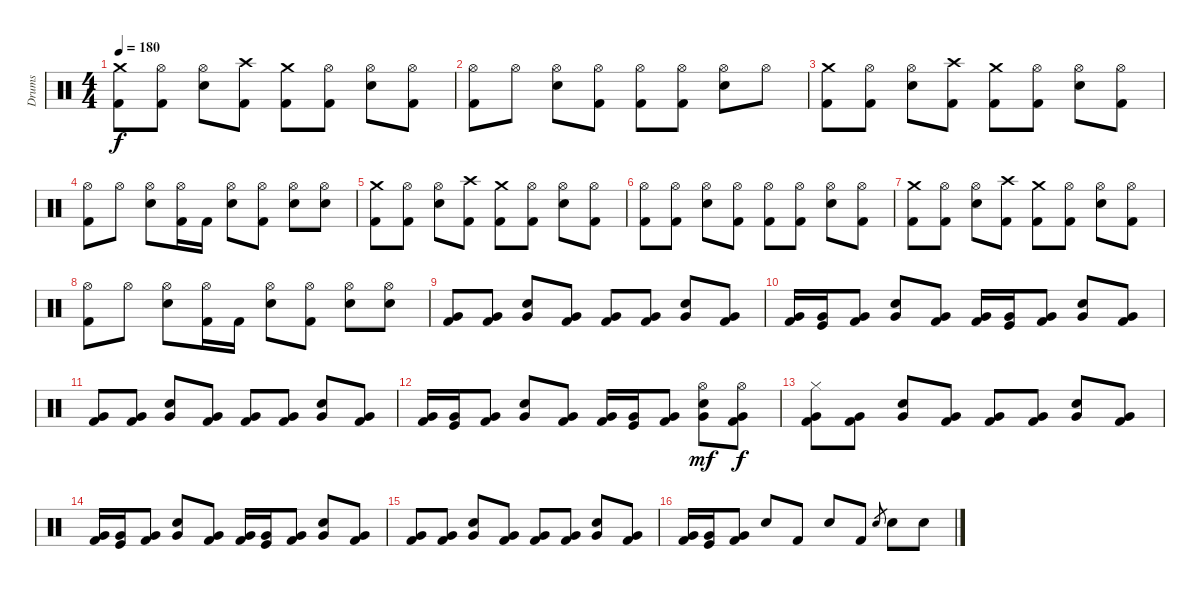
\track ("Drums" "Drums") {instrument percussion}
\staff {score}
\articulation defaults
\ts (4 4)
\tempo 180
\clef neutral
\ks c
("Crash medium (hit)" "Kick (hit) 2").8{dy f} ("Hi-Hat (open)" "Kick (hit) 2").8 ("Hi-Hat (open)" "Electric Snare (hit)").8 ("Crash high (hit)" "Kick (hit) 2").8 ("Crash medium (hit)" "Kick (hit) 2").8 ("Hi-Hat (open)" "Kick (hit) 2").8 ("Hi-Hat (open)" "Electric Snare (hit)").8 ("Hi-Hat (open)" "Kick (hit) 2").8 |
("Hi-Hat (open)" "Kick (hit) 2").8 "Hi-Hat (open)".8 ("Hi-Hat (open)" "Electric Snare (hit)").8 ("Hi-Hat (open)" "Kick (hit) 2").8 ("Hi-Hat (open)" "Kick (hit) 2").8 ("Hi-Hat (open)" "Kick (hit) 2").8 ("Hi-Hat (open)" "Electric Snare (hit)").8 "Hi-Hat (open)".8 |
("Crash medium (hit)" "Kick (hit) 2").8 ("Hi-Hat (open)" "Kick (hit) 2").8 ("Hi-Hat (open)" "Electric Snare (hit)").8 ("Crash high (hit)" "Kick (hit) 2").8 ("Crash medium (hit)" "Kick (hit) 2").8 ("Hi-Hat (open)" "Kick (hit) 2").8 ("Hi-Hat (open)" "Electric Snare (hit)").8 ("Hi-Hat (open)" "Kick (hit) 2").8 |
("Hi-Hat (open)" "Kick (hit) 2").8 "Hi-Hat (open)".8 ("Hi-Hat (open)" "Electric Snare (hit)").8 ("Hi-Hat (open)" "Kick (hit) 2").16 "Kick (hit) 2".16 ("Hi-Hat (open)" "Electric Snare (hit)").8 ("Hi-Hat (open)" "Kick (hit) 2").8 ("Hi-Hat (open)" "Electric Snare (hit)").8 ("Hi-Hat (open)" "Electric Snare (hit)").8 |
("Crash medium (hit)" "Kick (hit) 2").8 ("Hi-Hat (open)" "Kick (hit) 2").8 ("Hi-Hat (open)" "Electric Snare (hit)").8 ("Crash high (hit)" "Kick (hit) 2").8 ("Crash medium (hit)" "Kick (hit) 2").8 ("Hi-Hat (open)" "Kick (hit) 2").8 ("Hi-Hat (open)" "Electric Snare (hit)").8 ("Hi-Hat (open)" "Kick (hit) 2").8 |
("Hi-Hat (open)" "Kick (hit) 2").8 ("Hi-Hat (open)" "Kick (hit) 2").8 ("Hi-Hat (open)" "Electric Snare (hit)").8 ("Hi-Hat (open)" "Kick (hit) 2").8 ("Hi-Hat (open)" "Kick (hit) 2").8 ("Hi-Hat (open)" "Kick (hit) 2").8 ("Hi-Hat (open)" "Electric Snare (hit)").8 ("Hi-Hat (open)" "Kick (hit) 2").8 |
("Crash medium (hit)" "Kick (hit) 2").8 ("Hi-Hat (open)" "Kick (hit) 2").8 ("Hi-Hat (open)" "Electric Snare (hit)").8 ("Crash high (hit)" "Kick (hit) 2").8 ("Crash medium (hit)" "Kick (hit) 2").8 ("Hi-Hat (open)" "Kick (hit) 2").8 ("Hi-Hat (open)" "Electric Snare (hit)").8 ("Hi-Hat (open)" "Kick (hit) 2").8 |
("Hi-Hat (open)" "Kick (hit) 2").8 "Hi-Hat (open)".8 ("Hi-Hat (open)" "Electric Snare (hit)").8 ("Hi-Hat (open)" "Kick (hit) 2").16 "Kick (hit) 2".16 ("Hi-Hat (open)" "Electric Snare (hit)").8 ("Hi-Hat (open)" "Kick (hit) 2").8 ("Hi-Hat (open)" "Electric Snare (hit)").8 ("Hi-Hat (open)" "Electric Snare (hit)").8 |
("Very Low Tom (hit)" "Kick (hit) 2").8 ("Very Low Tom (hit)" "Kick (hit) 2").8 ("Electric Snare (hit)" "Very Low Tom (hit)").8 ("Very Low Tom (hit)" "Kick (hit) 2").8 ("Very Low Tom (hit)" "Kick (hit) 2").8 ("Very Low Tom (hit)" "Kick (hit) 2").8 ("Electric Snare (hit)" "Very Low Tom (hit)").8 ("Very Low Tom (hit)" "Kick (hit) 2").8 |
("Very Low Tom (hit)" "Kick (hit) 2").16 ("Very Low Tom (hit)" "Kick (hit)").16 ("Very Low Tom (hit)" "Kick (hit) 2").8 ("Electric Snare (hit)" "Very Low Tom (hit)").8 ("Very Low Tom (hit)" "Kick (hit) 2").8 ("Very Low Tom (hit)" "Kick (hit) 2").16 ("Very Low Tom (hit)" "Kick (hit)").16 ("Very Low Tom (hit)" "Kick (hit) 2").8 ("Electric Snare (hit)" "Very Low Tom (hit)").8 ("Very Low Tom (hit)" "Kick (hit) 2").8 |
("Very Low Tom (hit)" "Kick (hit) 2").8 ("Very Low Tom (hit)" "Kick (hit) 2").8 ("Electric Snare (hit)" "Very Low Tom (hit)").8 ("Very Low Tom (hit)" "Kick (hit) 2").8 ("Very Low Tom (hit)" "Kick (hit) 2").8 ("Very Low Tom (hit)" "Kick (hit) 2").8 ("Electric Snare (hit)" "Very Low Tom (hit)").8 ("Very Low Tom (hit)" "Kick (hit) 2").8 |
("Very Low Tom (hit)" "Kick (hit) 2").16 ("Very Low Tom (hit)" "Kick (hit)").16 ("Very Low Tom (hit)" "Kick (hit) 2").8 ("Electric Snare (hit)" "Very Low Tom (hit)").8 ("Very Low Tom (hit)" "Kick (hit) 2").8 ("Very Low Tom (hit)" "Kick (hit) 2").16 ("Very Low Tom (hit)" "Kick (hit)").16 ("Very Low Tom (hit)" "Kick (hit) 2").8 ("Hi-Hat (open)" "Electric Snare (hit)" "Very Low Tom (hit)").8{dy mf} ("Hi-Hat (open)" "Very Low Tom (hit)" "Kick (hit) 2").8{dy f} |
("Hi-Hat (closed)" "Very Low Tom (hit)" "Kick (hit) 2").8 ("Very Low Tom (hit)" "Kick (hit) 2").8 ("Electric Snare (hit)" "Very Low Tom (hit)").8 ("Very Low Tom (hit)" "Kick (hit) 2").8 ("Very Low Tom (hit)" "Kick (hit) 2").8 ("Very Low Tom (hit)" "Kick (hit) 2").8 ("Electric Snare (hit)" "Very Low Tom (hit)").8 ("Very Low Tom (hit)" "Kick (hit) 2").8 |
("Very Low Tom (hit)" "Kick (hit) 2").16 ("Very Low Tom (hit)" "Kick (hit)").16 ("Very Low Tom (hit)" "Kick (hit) 2").8 ("Electric Snare (hit)" "Very Low Tom (hit)").8 ("Very Low Tom (hit)" "Kick (hit) 2").8 ("Very Low Tom (hit)" "Kick (hit) 2").16 ("Very Low Tom (hit)" "Kick (hit)").16 ("Very Low Tom (hit)" "Kick (hit) 2").8 ("Electric Snare (hit)" "Very Low Tom (hit)").8 ("Very Low Tom (hit)" "Kick (hit) 2").8 |
("Very Low Tom (hit)" "Kick (hit) 2").8 ("Very Low Tom (hit)" "Kick (hit) 2").8 ("Electric Snare (hit)" "Very Low Tom (hit)").8 ("Very Low Tom (hit)" "Kick (hit) 2").8 ("Very Low Tom (hit)" "Kick (hit) 2").8 ("Very Low Tom (hit)" "Kick (hit) 2").8 ("Electric Snare (hit)" "Very Low Tom (hit)").8 ("Very Low Tom (hit)" "Kick (hit) 2").8 |
("Very Low Tom (hit)" "Kick (hit) 2").16 ("Very Low Tom (hit)" "Kick (hit)").16 ("Very Low Tom (hit)" "Kick (hit) 2").8 "Electric Snare (hit)".8 "Kick (hit) 2".8 "Electric Snare (hit)".8 "Kick (hit) 2".8 "Electric Snare (hit)".8{gr} "Electric Snare (hit)".8 "Electric Snare (hit)".8
